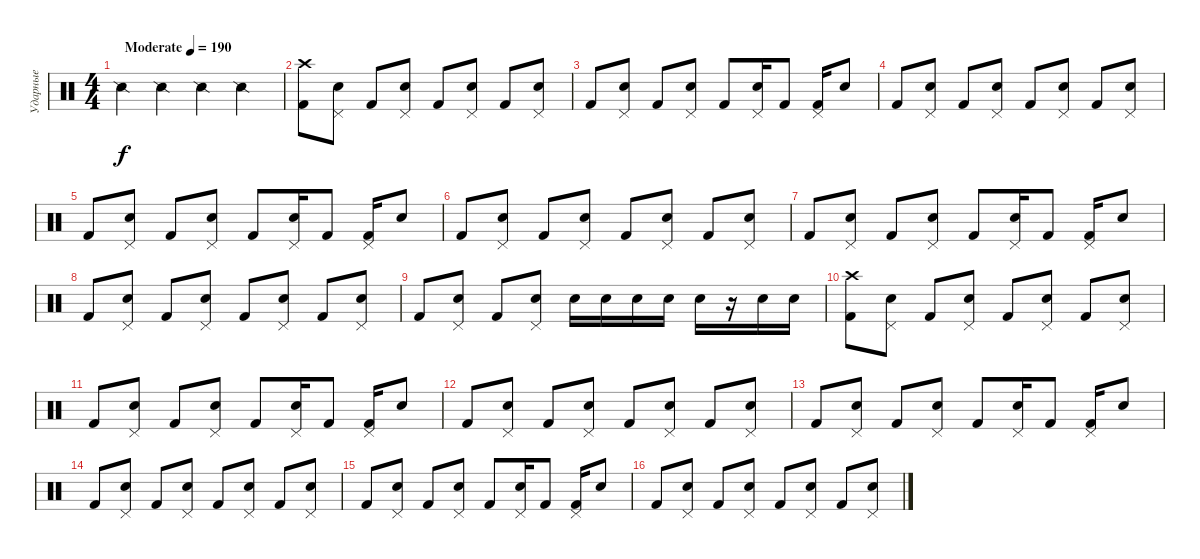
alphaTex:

\track ("Ударные" "Ударные") {instrument percussion}
\staff {score}
\articulation defaults
\ts (4 4)
\tempo (190 "Moderate")
\clef neutral
\ks c "Snare (side stick) 2".4{dy f} "Snare (side stick) 2".4 "Snare (side stick) 2".4 "Snare (side stick) 2".4
|
("Crash high (hit)" "Kick (hit) 2").8 ("Pedal Hi-Hat (hit)" "Electric Snare (hit)").8 "Kick (hit) 2".8 ("Pedal Hi-Hat (hit)" "Electric Snare (hit)").8 "Kick (hit) 2".8 ("Pedal Hi-Hat (hit)" "Electric Snare (hit)").8 "Kick (hit) 2".8 ("Pedal Hi-Hat (hit)" "Electric Snare (hit)").8 |
"Kick (hit) 2".8 ("Pedal Hi-Hat (hit)" "Electric Snare (hit)").8 "Kick (hit) 2".8 ("Pedal Hi-Hat (hit)" "Electric Snare (hit)").8 "Kick (hit) 2".8 ("Pedal Hi-Hat (hit)" "Electric Snare (hit)").16 "Kick (hit) 2".8 ("Pedal Hi-Hat (hit)" "Kick (hit) 2").16 "Electric Snare (hit)".8 |
"Kick (hit) 2".8 ("Pedal Hi-Hat (hit)" "Electric Snare (hit)").8 "Kick (hit) 2".8 ("Pedal Hi-Hat (hit)" "Electric Snare (hit)").8 "Kick (hit) 2".8 ("Pedal Hi-Hat (hit)" "Electric Snare (hit)").8 "Kick (hit) 2".8 ("Pedal Hi-Hat (hit)" "Electric Snare (hit)").8 |
"Kick (hit) 2".8 ("Pedal Hi-Hat (hit)" "Electric Snare (hit)").8 "Kick (hit) 2".8 ("Pedal Hi-Hat (hit)" "Electric Snare (hit)").8 "Kick (hit) 2".8 ("Pedal Hi-Hat (hit)" "Electric Snare (hit)").16 "Kick (hit) 2".8 ("Pedal Hi-Hat (hit)" "Kick (hit) 2").16 "Electric Snare (hit)".8 |
"Kick (hit) 2".8 ("Pedal Hi-Hat (hit)" "Electric Snare (hit)").8 "Kick (hit) 2".8 ("Pedal Hi-Hat (hit)" "Electric Snare (hit)").8 "Kick (hit) 2".8 ("Pedal Hi-Hat (hit)" "Electric Snare (hit)").8 "Kick (hit) 2".8 ("Pedal Hi-Hat (hit)" "Electric Snare (hit)").8 |
"Kick (hit) 2".8 ("Pedal Hi-Hat (hit)" "Electric Snare (hit)").8 "Kick (hit) 2".8 ("Pedal Hi-Hat (hit)" "Electric Snare (hit)").8 "Kick (hit) 2".8 ("Pedal Hi-Hat (hit)" "Electric Snare (hit)").16 "Kick (hit) 2".8 ("Pedal Hi-Hat (hit)" "Kick (hit) 2").16 "Electric Snare (hit)".8 |
"Kick (hit) 2".8 ("Pedal Hi-Hat (hit)" "Electric Snare (hit)").8 "Kick (hit) 2".8 ("Pedal Hi-Hat (hit)" "Electric Snare (hit)").8 "Kick (hit) 2".8 ("Pedal Hi-Hat (hit)" "Electric Snare (hit)").8 "Kick (hit) 2".8 ("Pedal Hi-Hat (hit)" "Electric Snare (hit)").8 |
"Kick (hit) 2".8 ("Pedal Hi-Hat (hit)" "Electric Snare (hit)").8 "Kick (hit) 2".8 ("Pedal Hi-Hat (hit)" "Electric Snare (hit)").8 "Electric Snare (hit)".16 "Electric Snare (hit)".16 "Electric Snare (hit)".16 "Electric Snare (hit)".16 "Electric Snare (hit)".16 r.16 "Electric Snare (hit)".16 "Electric Snare (hit)".16 |
("Crash high (hit)" "Kick (hit) 2").8 ("Pedal Hi-Hat (hit)" "Electric Snare (hit)").8 "Kick (hit) 2".8 ("Pedal Hi-Hat (hit)" "Electric Snare (hit)").8 "Kick (hit) 2".8 ("Pedal Hi-Hat (hit)" "Electric Snare (hit)").8 "Kick (hit) 2".8 ("Pedal Hi-Hat (hit)" "Electric Snare (hit)").8 |
"Kick (hit) 2".8 ("Pedal Hi-Hat (hit)" "Electric Snare (hit)").8 "Kick (hit) 2".8 ("Pedal Hi-Hat (hit)" "Electric Snare (hit)").8 "Kick (hit) 2".8 ("Pedal Hi-Hat (hit)" "Electric Snare (hit)").16 "Kick (hit) 2".8 ("Pedal Hi-Hat (hit)" "Kick (hit) 2").16 "Electric Snare (hit)".8 |
"Kick (hit) 2".8 ("Pedal Hi-Hat (hit)" "Electric Snare (hit)").8 "Kick (hit) 2".8 ("Pedal Hi-Hat (hit)" "Electric Snare (hit)").8 "Kick (hit) 2".8 ("Pedal Hi-Hat (hit)" "Electric Snare (hit)").8 "Kick (hit) 2".8 ("Pedal Hi-Hat (hit)" "Electric Snare (hit)").8 |
"Kick (hit) 2".8 ("Pedal Hi-Hat (hit)" "Electric Snare (hit)").8 "Kick (hit) 2".8 ("Pedal Hi-Hat (hit)" "Electric Snare (hit)").8 "Kick (hit) 2".8 ("Pedal Hi-Hat (hit)" "Electric Snare (hit)").16 "Kick (hit) 2".8 ("Pedal Hi-Hat (hit)" "Kick (hit) 2").16 "Electric Snare (hit)".8 |
"Kick (hit) 2".8 ("Pedal Hi-Hat (hit)" "Electric Snare (hit)").8 "Kick (hit) 2".8 ("Pedal Hi-Hat (hit)" "Electric Snare (hit)").8 "Kick (hit) 2".8 ("Pedal Hi-Hat (hit)" "Electric Snare (hit)").8 "Kick (hit) 2".8 ("Pedal Hi-Hat (hit)" "Electric Snare (hit)").8 |
"Kick (hit) 2".8 ("Pedal Hi-Hat (hit)" "Electric Snare (hit)").8 "Kick (hit) 2".8 ("Pedal Hi-Hat (hit)" "Electric Snare (hit)").8 "Kick (hit) 2".8 ("Pedal Hi-Hat (hit)" "Electric Snare (hit)").16 "Kick (hit) 2".8 ("Pedal Hi-Hat (hit)" "Kick (hit) 2").16 "Electric Snare (hit)".8 |
"Kick (hit) 2".8 ("Pedal Hi-Hat (hit)" "Electric Snare (hit)").8 "Kick (hit) 2".8 ("Pedal Hi-Hat (hit)" "Electric Snare (hit)").8 "Kick (hit) 2".8 ("Pedal Hi-Hat (hit)" "Electric Snare (hit)").8 "Kick (hit) 2".8 ("Pedal Hi-Hat (hit)" "Electric Snare (hit)").8
